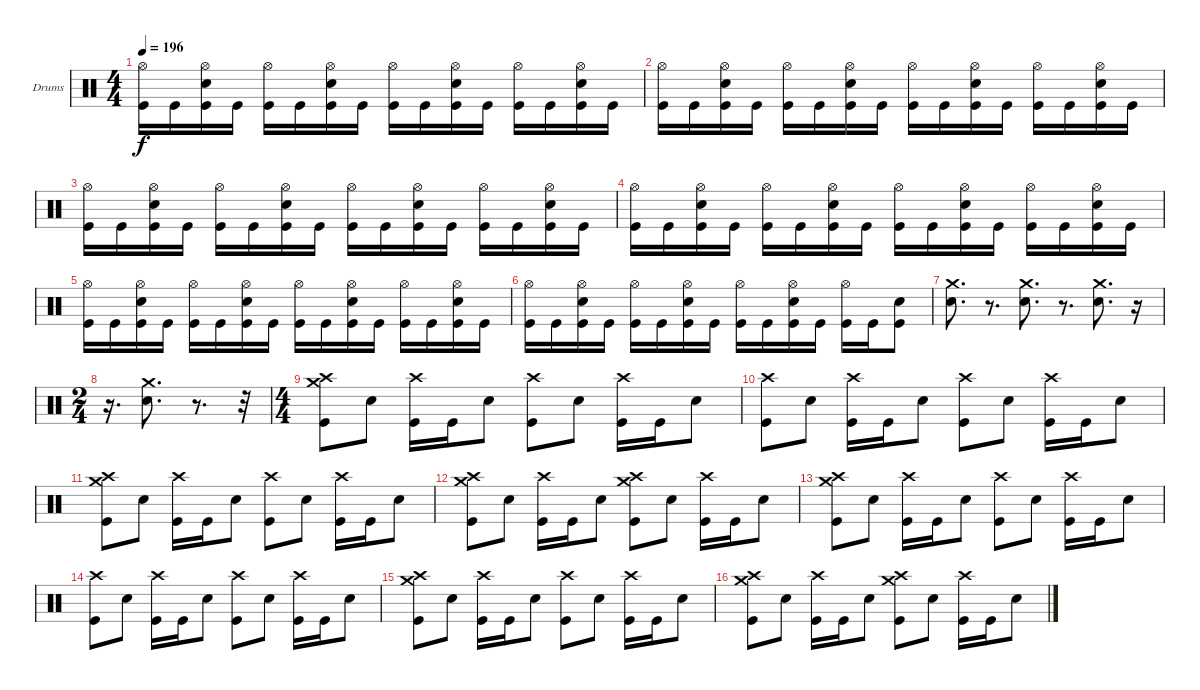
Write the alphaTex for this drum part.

\defaultSystemsLayout 4
\bracketExtendMode groupsimilarinstruments
\firstSystemTrackNameOrientation horizontal
\otherSystemsTrackNameOrientation horizontal
\track ("Lars Ulrich (Drum)" "Drums") {instrument percussion}
\staff {score}
\articulation defaults
\ts (4 4)
\tempo 196
\clef neutral
\scale
0.333333
\ks c
("Hi-Hat (open)" "Kick (hit)").16{dy f} "Kick (hit)".16 ("Hi-Hat (open)" "Snare (hit) 2" "Kick (hit)").16 "Kick (hit)".16 ("Hi-Hat (open)" "Kick (hit)").16 "Kick (hit)".16 ("Hi-Hat (open)" "Snare (hit) 2" "Kick (hit)").16 "Kick (hit)".16 ("Hi-Hat (open)" "Kick (hit)").16 "Kick (hit)".16 ("Hi-Hat (open)" "Snare (hit) 2" "Kick (hit)").16 "Kick (hit)".16 ("Hi-Hat (open)" "Kick (hit)").16 "Kick (hit)".16 ("Hi-Hat (open)" "Snare (hit) 2" "Kick (hit)").16 "Kick (hit)".16 |
\scale
0.333333 ("Hi-Hat (open)" "Kick (hit)").16 "Kick (hit)".16 ("Hi-Hat (open)" "Snare (hit) 2" "Kick (hit)").16 "Kick (hit)".16 ("Hi-Hat (open)" "Kick (hit)").16 "Kick (hit)".16 ("Hi-Hat (open)" "Snare (hit) 2" "Kick (hit)").16 "Kick (hit)".16 ("Hi-Hat (open)" "Kick (hit)").16 "Kick (hit)".16 ("Hi-Hat (open)" "Snare (hit) 2" "Kick (hit)").16 "Kick (hit)".16 ("Hi-Hat (open)" "Kick (hit)").16 "Kick (hit)".16 ("Hi-Hat (open)" "Snare (hit) 2" "Kick (hit)").16 "Kick (hit)".16 |
\scale
0.333333 ("Hi-Hat (open)" "Kick (hit)").16 "Kick (hit)".16 ("Hi-Hat (open)" "Snare (hit) 2" "Kick (hit)").16 "Kick (hit)".16 ("Hi-Hat (open)" "Kick (hit)").16 "Kick (hit)".16 ("Hi-Hat (open)" "Snare (hit) 2" "Kick (hit)").16 "Kick (hit)".16 ("Hi-Hat (open)" "Kick (hit)").16 "Kick (hit)".16 ("Hi-Hat (open)" "Snare (hit) 2" "Kick (hit)").16 "Kick (hit)".16 ("Hi-Hat (open)" "Kick (hit)").16 "Kick (hit)".16 ("Hi-Hat (open)" "Snare (hit) 2" "Kick (hit)").16 "Kick (hit)".16 |
\scale
0.333333 ("Hi-Hat (open)" "Kick (hit)").16 "Kick (hit)".16 ("Hi-Hat (open)" "Snare (hit) 2" "Kick (hit)").16 "Kick (hit)".16 ("Hi-Hat (open)" "Kick (hit)").16 "Kick (hit)".16 ("Hi-Hat (open)" "Snare (hit) 2" "Kick (hit)").16 "Kick (hit)".16 ("Hi-Hat (open)" "Kick (hit)").16 "Kick (hit)".16 ("Hi-Hat (open)" "Snare (hit) 2" "Kick (hit)").16 "Kick (hit)".16 ("Hi-Hat (open)" "Kick (hit)").16 "Kick (hit)".16 ("Hi-Hat (open)" "Snare (hit) 2" "Kick (hit)").16 "Kick (hit)".16 |
\scale
0.333333 ("Hi-Hat (open)" "Kick (hit)").16 "Kick (hit)".16 ("Hi-Hat (open)" "Snare (hit) 2" "Kick (hit)").16 "Kick (hit)".16 ("Hi-Hat (open)" "Kick (hit)").16 "Kick (hit)".16 ("Hi-Hat (open)" "Snare (hit) 2" "Kick (hit)").16 "Kick (hit)".16 ("Hi-Hat (open)" "Kick (hit)").16 "Kick (hit)".16 ("Hi-Hat (open)" "Snare (hit) 2" "Kick (hit)").16 "Kick (hit)".16 ("Hi-Hat (open)" "Kick (hit)").16 "Kick (hit)".16 ("Hi-Hat (open)" "Snare (hit) 2" "Kick (hit)").16 "Kick (hit)".16 |
\scale
0.262911 ("Hi-Hat (open)" "Kick (hit)").16 "Kick (hit)".16 ("Hi-Hat (open)" "Snare (hit) 2" "Kick (hit)").16 "Kick (hit)".16 ("Hi-Hat (open)" "Kick (hit)").16 "Kick (hit)".16 ("Hi-Hat (open)" "Snare (hit) 2" "Kick (hit)").16 "Kick (hit)".16 ("Hi-Hat (open)" "Kick (hit)").16 "Kick (hit)".16 ("Hi-Hat (open)" "Snare (hit) 2" "Kick (hit)").16 "Kick (hit)".16 ("Hi-Hat (open)" "Kick (hit)").16 "Kick (hit)".16 ("Snare (hit) 2" "Kick (hit)").8 |
\scale
0.262911 ("Crash medium (hit)" "Snare (hit) 2").8{d} r.8{d} ("Crash medium (hit)" "Snare (hit) 2").8{d} r.8{d} ("Crash medium (hit)" "Snare (hit) 2").8{d} r.16 |
\ts (2 4)
\scale
0.474178 r.16{d} ("Crash medium (hit)" "Snare (hit) 2").8{d} r.8{d} r.32 |
\ts (4 4)
\scale
0.474178 ("Crash high (hit)" "Crash medium (hit)" "Kick (hit)").8 "Snare (hit) 2".8 ("Crash high (hit)" "Kick (hit)").16 "Kick (hit)".16 "Snare (hit) 2".8 ("Crash high (hit)" "Kick (hit)").8 "Snare (hit) 2".8 ("Crash high (hit)" "Kick (hit)").16 "Kick (hit)".16 "Snare (hit) 2".8 |
\scale
0.262911 ("Crash high (hit)" "Kick (hit)").8 "Snare (hit) 2".8 ("Crash high (hit)" "Kick (hit)").16 "Kick (hit)".16 "Snare (hit) 2".8 ("Crash high (hit)" "Kick (hit)").8 "Snare (hit) 2".8 ("Crash high (hit)" "Kick (hit)").16 "Kick (hit)".16 "Snare (hit) 2".8 |
\scale
0.262911 ("Crash high (hit)" "Crash medium (hit)" "Kick (hit)").8 "Snare (hit) 2".8 ("Crash high (hit)" "Kick (hit)").16 "Kick (hit)".16 "Snare (hit) 2".8 ("Crash high (hit)" "Kick (hit)").8 "Snare (hit) 2".8 ("Crash high (hit)" "Kick (hit)").16 "Kick (hit)".16 "Snare (hit) 2".8 |
\scale
0.333333 ("Crash high (hit)" "Crash medium (hit)" "Kick (hit)").8 "Snare (hit) 2".8 ("Crash high (hit)" "Kick (hit)").16 "Kick (hit)".16 "Snare (hit) 2".8 ("Crash high (hit)" "Crash medium (hit)" "Kick (hit)").8 "Snare (hit) 2".8 ("Crash high (hit)" "Kick (hit)").16 "Kick (hit)".16 "Snare (hit) 2".8 |
\scale
0.333333 ("Crash high (hit)" "Crash medium (hit)" "Kick (hit)").8 "Snare (hit) 2".8 ("Crash high (hit)" "Kick (hit)").16 "Kick (hit)".16 "Snare (hit) 2".8 ("Crash high (hit)" "Kick (hit)").8 "Snare (hit) 2".8 ("Crash high (hit)" "Kick (hit)").16 "Kick (hit)".16 "Snare (hit) 2".8 |
\scale
0.333333 ("Crash high (hit)" "Kick (hit)").8 "Snare (hit) 2".8 ("Crash high (hit)" "Kick (hit)").16 "Kick (hit)".16 "Snare (hit) 2".8 ("Crash high (hit)" "Kick (hit)").8 "Snare (hit) 2".8 ("Crash high (hit)" "Kick (hit)").16 "Kick (hit)".16 "Snare (hit) 2".8 |
\scale
0.333333 ("Crash high (hit)" "Crash medium (hit)" "Kick (hit)").8 "Snare (hit) 2".8 ("Crash high (hit)" "Kick (hit)").16 "Kick (hit)".16 "Snare (hit) 2".8 ("Crash high (hit)" "Kick (hit)").8 "Snare (hit) 2".8 ("Crash high (hit)" "Kick (hit)").16 "Kick (hit)".16 "Snare (hit) 2".8 |
\scale
0.333333 ("Crash high (hit)" "Crash medium (hit)" "Kick (hit)").8 "Snare (hit) 2".8 ("Crash high (hit)" "Kick (hit)").16 "Kick (hit)".16 "Snare (hit) 2".8 ("Crash high (hit)" "Crash medium (hit)" "Kick (hit)").8 "Snare (hit) 2".8 ("Crash high (hit)" "Kick (hit)").16 "Kick (hit)".16 "Snare (hit) 2".8
